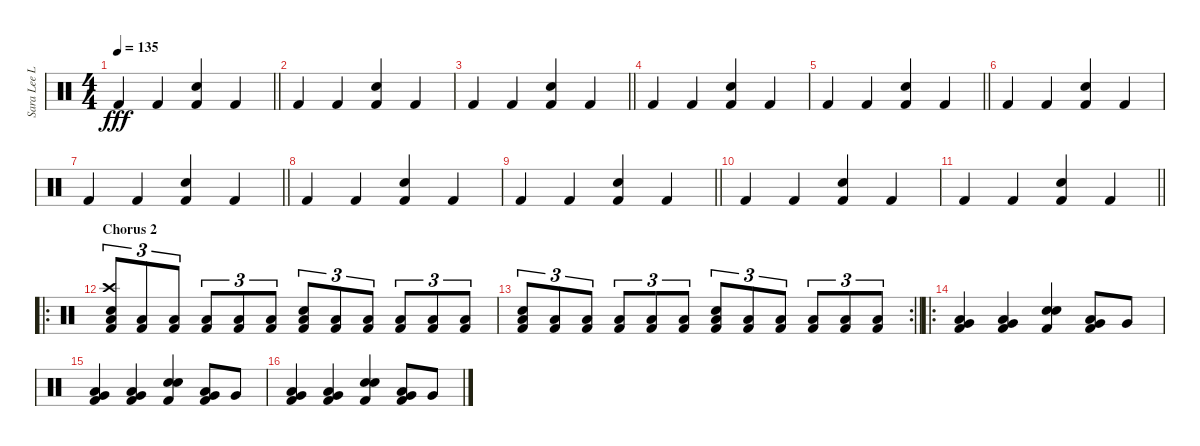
\track ("Sara Lee Lucas" "Sara Lee L") {instrument percussion}
\staff {score}
\articulation defaults
\ts (4 4)
\tempo 135
\clef neutral
\barLineRight lightlight
\ks c "Kick (hit) 2".4{dy fff} "Kick (hit) 2".4
("Snare (hit) 2" "Kick (hit) 2").4 "Kick (hit) 2".4 |
"Kick (hit) 2".4 "Kick (hit) 2".4 ("Snare (hit) 2" "Kick (hit) 2").4 "Kick (hit) 2".4 |
\barLineRight lightlight "Kick (hit) 2".4 "Kick (hit) 2".4
("Snare (hit) 2" "Kick (hit) 2").4 "Kick (hit) 2".4 |
"Kick (hit) 2".4 "Kick (hit) 2".4 ("Snare (hit) 2" "Kick (hit) 2").4 "Kick (hit) 2".4 |
\barLineRight lightlight "Kick (hit) 2".4 "Kick (hit) 2".4
("Snare (hit) 2" "Kick (hit) 2").4 "Kick (hit) 2".4 |
"Kick (hit) 2".4 "Kick (hit) 2".4 ("Snare (hit) 2" "Kick (hit) 2").4 "Kick (hit) 2".4 |
\barLineRight lightlight "Kick (hit) 2".4 "Kick (hit) 2".4
("Snare (hit) 2" "Kick (hit) 2").4 "Kick (hit) 2".4 |
"Kick (hit) 2".4 "Kick (hit) 2".4 ("Snare (hit) 2" "Kick (hit) 2").4 "Kick (hit) 2".4 |
\barLineRight lightlight "Kick (hit) 2".4 "Kick (hit) 2".4
("Snare (hit) 2" "Kick (hit) 2").4 "Kick (hit) 2".4 |
"Kick (hit) 2".4 "Kick (hit) 2".4 ("Snare (hit) 2" "Kick (hit) 2").4 "Kick (hit) 2".4 |
\barLineRight lightlight "Kick (hit) 2".4 "Kick (hit) 2".4
("Snare (hit) 2" "Kick (hit) 2").4 "Kick (hit) 2".4 |
\ro
\section ("" "Chorus 2")
("Crash high (hit)" "Snare (hit) 2" "Low Tom (hit)" "Kick (hit) 2").8{tu (3 2)} ("Low Tom (hit)" "Kick (hit) 2").8{tu (3 2)} ("Low Tom (hit)" "Kick (hit) 2").8{tu (3 2)} ("Low Tom (hit)" "Kick (hit) 2").8{tu (3 2)} ("Low Tom (hit)" "Kick (hit) 2").8{tu (3 2)} ("Low Tom (hit)" "Kick (hit) 2").8{tu (3 2)} ("Snare (hit) 2" "Low Tom (hit)" "Kick (hit) 2").8{tu (3 2)} ("Low Tom (hit)" "Kick (hit) 2").8{tu (3 2)} ("Low Tom (hit)" "Kick (hit) 2").8{tu (3 2)} ("Low Tom (hit)" "Kick (hit) 2").8{tu (3 2)} ("Low Tom (hit)" "Kick (hit) 2").8{tu (3 2)} ("Low Tom (hit)" "Kick (hit) 2").8{tu (3 2)} |
\rc 2
\barLineRight lightlight
("Snare (hit) 2" "Low Tom (hit)" "Kick (hit) 2").8{tu (3 2)} ("Low Tom (hit)" "Kick (hit) 2").8{tu (3 2)} ("Low Tom (hit)" "Kick (hit) 2").8{tu (3 2)} ("Low Tom (hit)" "Kick (hit) 2").8{tu (3 2)} ("Low Tom (hit)" "Kick (hit) 2").8{tu (3 2)} ("Low Tom (hit)" "Kick (hit) 2").8{tu (3 2)} ("Snare (hit) 2" "Low Tom (hit)" "Kick (hit) 2").8{tu (3 2)} ("Low Tom (hit)" "Kick (hit) 2").8{tu (3 2)} ("Low Tom (hit)" "Kick (hit) 2").8{tu (3 2)} ("Low Tom (hit)" "Kick (hit) 2").8{tu (3 2)} ("Low Tom (hit)" "Kick (hit) 2").8{tu (3 2)} ("Low Tom (hit)" "Kick (hit) 2").8{tu (3 2)} |
\ro
("Very Low Tom (hit)" "Low Tom (hit)" "Kick (hit) 2").4 ("Very Low Tom (hit)" "Low Tom (hit)" "Kick (hit) 2").4 ("Snare (hit) 2" "Electric Snare (hit)" "Kick (hit) 2").4 ("Very Low Tom (hit)" "Low Tom (hit)" "Kick (hit) 2").8 "Very Low Tom (hit)".8 |
("Very Low Tom (hit)" "Low Tom (hit)" "Kick (hit) 2").4 ("Very Low Tom (hit)" "Low Tom (hit)" "Kick (hit) 2").4 ("Snare (hit) 2" "Electric Snare (hit)" "Kick (hit) 2").4 ("Very Low Tom (hit)" "Low Tom (hit)" "Kick (hit) 2").8 "Very Low Tom (hit)".8 |
("Very Low Tom (hit)" "Low Tom (hit)" "Kick (hit) 2").4 ("Very Low Tom (hit)" "Low Tom (hit)" "Kick (hit) 2").4 ("Snare (hit) 2" "Electric Snare (hit)" "Kick (hit) 2").4 ("Very Low Tom (hit)" "Low Tom (hit)" "Kick (hit) 2").8 "Very Low Tom (hit)".8
